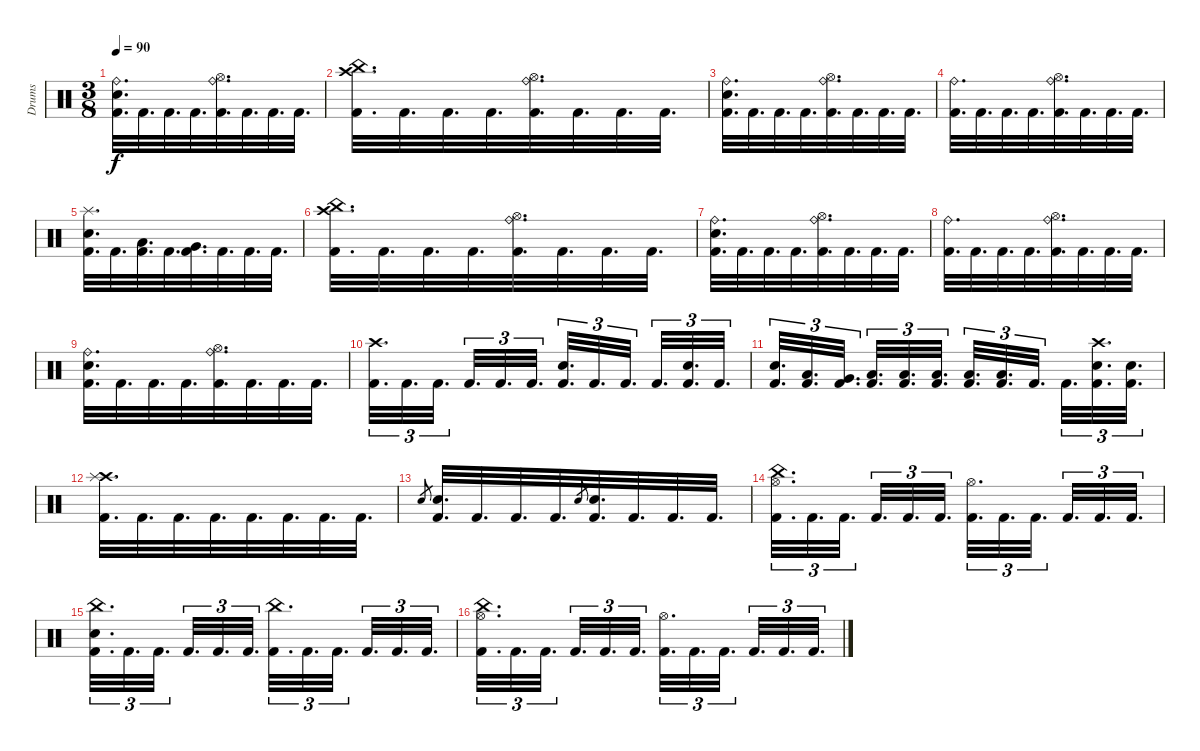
\track ("Drums" "Drums") {instrument percussion}
\staff {score}
\articulation defaults
\ts (3 8)
\tempo 90
\clef neutral
\ks c
("Ride (bell)" "Electric Snare (hit)" "Kick (hit) 2").32{d dy f} "Kick (hit) 2".32{d} "Kick (hit) 2".32{d} "Kick (hit) 2".32{d} ("Ride (bell)" "Hi-Hat (open)" "Kick (hit) 2").32{d} "Kick (hit) 2".32{d} "Kick (hit) 2".32{d} "Kick (hit) 2".32{d} |
("Crash high (hit)" "China (hit)" "Kick (hit) 2").32{d} "Kick (hit) 2".32{d} "Kick (hit) 2".32{d} "Kick (hit) 2".32{d} ("Ride (bell)" "Hi-Hat (open)" "Kick (hit) 2").32{d} "Kick (hit) 2".32{d} "Kick (hit) 2".32{d} "Kick (hit) 2".32{d} |
("Ride (bell)" "Electric Snare (hit)" "Kick (hit) 2").32{d} "Kick (hit) 2".32{d} "Kick (hit) 2".32{d} "Kick (hit) 2".32{d} ("Ride (bell)" "Hi-Hat (open)" "Kick (hit) 2").32{d} "Kick (hit) 2".32{d} "Kick (hit) 2".32{d} "Kick (hit) 2".32{d} |
("Ride (bell)" "Kick (hit) 2").32{d} "Kick (hit) 2".32{d} "Kick (hit) 2".32{d} "Kick (hit) 2".32{d} ("Ride (bell)" "Hi-Hat (open)" "Kick (hit) 2").32{d} "Kick (hit) 2".32{d} "Kick (hit) 2".32{d} "Kick (hit) 2".32{d} |
("Splash (hit)" "Electric Snare (hit)" "Kick (hit) 2").32{d} "Kick (hit) 2".32{d} ("Low Tom (hit)" "Kick (hit) 2").32{d} "Kick (hit) 2".32{d} ("Very Low Tom (hit)" "Kick (hit) 2").32{d} "Kick (hit) 2".32{d} "Kick (hit) 2".32{d} "Kick (hit) 2".32{d} |
("Crash high (hit)" "China (hit)" "Kick (hit) 2").32{d} "Kick (hit) 2".32{d} "Kick (hit) 2".32{d} "Kick (hit) 2".32{d} ("Ride (bell)" "Hi-Hat (open)" "Kick (hit) 2").32{d} "Kick (hit) 2".32{d} "Kick (hit) 2".32{d} "Kick (hit) 2".32{d} |
("Ride (bell)" "Electric Snare (hit)" "Kick (hit) 2").32{d} "Kick (hit) 2".32{d} "Kick (hit) 2".32{d} "Kick (hit) 2".32{d} ("Ride (bell)" "Hi-Hat (open)" "Kick (hit) 2").32{d} "Kick (hit) 2".32{d} "Kick (hit) 2".32{d} "Kick (hit) 2".32{d} |
("Ride (bell)" "Kick (hit) 2").32{d} "Kick (hit) 2".32{d} "Kick (hit) 2".32{d} "Kick (hit) 2".32{d} ("Ride (bell)" "Hi-Hat (open)" "Kick (hit) 2").32{d} "Kick (hit) 2".32{d} "Kick (hit) 2".32{d} "Kick (hit) 2".32{d} |
("Ride (bell)" "Electric Snare (hit)" "Kick (hit) 2").32{d} "Kick (hit) 2".32{d} "Kick (hit) 2".32{d} "Kick (hit) 2".32{d} ("Ride (bell)" "Hi-Hat (open)" "Kick (hit) 2").32{d} "Kick (hit) 2".32{d} "Kick (hit) 2".32{d} "Kick (hit) 2".32{d} |
("Crash high (hit)" "Kick (hit) 2").32{d tu (3 2)} "Kick (hit) 2".32{d tu (3 2)} "Kick (hit) 2".32{d tu (3 2)} "Kick (hit) 2".32{d tu (3 2)} "Kick (hit) 2".32{d tu (3 2)} "Kick (hit) 2".32{d tu (3 2)} ("Electric Snare (hit)" "Kick (hit) 2").32{d tu (3 2)} "Kick (hit) 2".32{d tu (3 2)} "Kick (hit) 2".32{d tu (3 2)} "Kick (hit) 2".32{d tu (3 2)} ("Electric Snare (hit)" "Kick (hit) 2").32{d tu (3 2)} "Kick (hit) 2".32{d tu (3 2)} |
("Electric Snare (hit)" "Kick (hit) 2").32{d tu (3 2)} ("Low Tom (hit)" "Kick (hit) 2").32{d tu (3 2)} ("Very Low Tom (hit)" "Kick (hit) 2").32{d tu (3 2)} ("Low Floor Tom (hit)" "Kick (hit) 2").32{d tu (3 2)} ("Low Floor Tom (hit)" "Kick (hit) 2").32{d tu (3 2)} ("Low Floor Tom (hit)" "Kick (hit) 2").32{d tu (3 2)} ("Low Floor Tom (hit)" "Kick (hit) 2").32{d tu (3 2)} ("Low Floor Tom (hit)" "Kick (hit) 2").32{d tu (3 2)} "Kick (hit) 2".32{d tu (3 2)} "Kick (hit) 2".32{d tu (3 2)} ("Crash high (hit)" "Electric Snare (hit)" "Kick (hit) 2").32{d tu (3 2)} ("Electric Snare (hit)" "Kick (hit) 2").32{d tu (3 2)} |
("Crash high (hit)" "Splash (hit)" "Kick (hit) 2").32{d} "Kick (hit) 2".32{d} "Kick (hit) 2".32{d} "Kick (hit) 2".32{d} "Kick (hit) 2".32{d} "Kick (hit) 2".32{d} "Kick (hit) 2".32{d} "Kick (hit) 2".32{d} |
"Electric Snare (hit)".8{gr} ("Electric Snare (hit)" "Kick (hit) 2").32{d} "Kick (hit) 2".32{d} "Kick (hit) 2".32{d} "Kick (hit) 2".32{d} "Electric Snare (hit)".8{gr} ("Electric Snare (hit)" "Kick (hit) 2").32{d} "Kick (hit) 2".32{d} "Kick (hit) 2".32{d} "Kick (hit) 2".32{d} |
("China (hit)" "Hi-Hat (open)" "Kick (hit) 2").32{d tu (3 2)} "Kick (hit) 2".32{d tu (3 2)} "Kick (hit) 2".32{d tu (3 2)} "Kick (hit) 2".32{d tu (3 2)} "Kick (hit) 2".32{d tu (3 2)} "Kick (hit) 2".32{d tu (3 2)} ("Hi-Hat (open)" "Kick (hit) 2").32{d tu (3 2)} "Kick (hit) 2".32{d tu (3 2)} "Kick (hit) 2".32{d tu (3 2)} "Kick (hit) 2".32{d tu (3 2)} "Kick (hit) 2".32{d tu (3 2)} "Kick (hit) 2".32{d tu (3 2)} |
("China (hit)" "Electric Snare (hit)" "Kick (hit) 2").32{d tu (3 2)} "Kick (hit) 2".32{d tu (3 2)} "Kick (hit) 2".32{d tu (3 2)} "Kick (hit) 2".32{d tu (3 2)} "Kick (hit) 2".32{d tu (3 2)} "Kick (hit) 2".32{d tu (3 2)} ("China (hit)" "Kick (hit) 2").32{d tu (3 2)} "Kick (hit) 2".32{d tu (3 2)} "Kick (hit) 2".32{d tu (3 2)} "Kick (hit) 2".32{d tu (3 2)} "Kick (hit) 2".32{d tu (3 2)} "Kick (hit) 2".32{d tu (3 2)} |
("China (hit)" "Hi-Hat (open)" "Kick (hit) 2").32{d tu (3 2)} "Kick (hit) 2".32{d tu (3 2)} "Kick (hit) 2".32{d tu (3 2)} "Kick (hit) 2".32{d tu (3 2)} "Kick (hit) 2".32{d tu (3 2)} "Kick (hit) 2".32{d tu (3 2)} ("Hi-Hat (open)" "Kick (hit) 2").32{d tu (3 2)} "Kick (hit) 2".32{d tu (3 2)} "Kick (hit) 2".32{d tu (3 2)} "Kick (hit) 2".32{d tu (3 2)} "Kick (hit) 2".32{d tu (3 2)} "Kick (hit) 2".32{d tu (3 2)}
